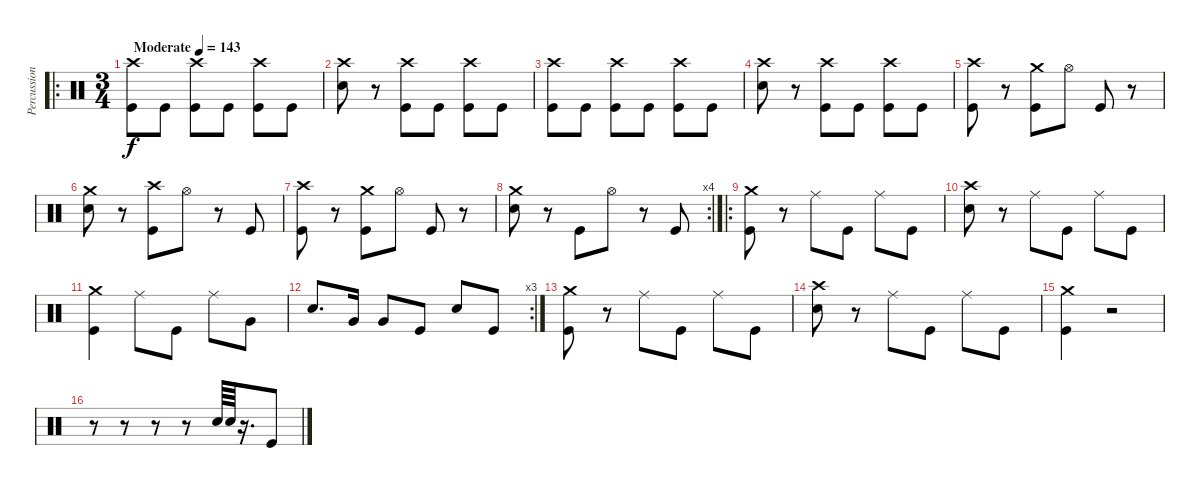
\track ("Percussion" "Percussion") {instrument percussion}
\staff {score}
\articulation defaults
\ro
\ts (3 4)
\tempo (143 "Moderate")
\clef neutral
\ks c
("Crash high (hit)" "Kick (hit)").8{dy f} "Kick (hit)".8 ("Crash high (hit)" "Kick (hit)").8 "Kick (hit)".8 ("Crash high (hit)" "Kick (hit)").8 "Kick (hit)".8 |
("Crash high (hit)" "Electric Snare (hit)").8 r.8 ("Crash high (hit)" "Kick (hit)").8 "Kick (hit)".8 ("Crash high (hit)" "Kick (hit)").8 "Kick (hit)".8 |
("Crash high (hit)" "Kick (hit)").8 "Kick (hit)".8 ("Crash high (hit)" "Kick (hit)").8 "Kick (hit)".8 ("Crash high (hit)" "Kick (hit)").8 "Kick (hit)".8 |
("Crash high (hit)" "Electric Snare (hit)").8 r.8 ("Crash high (hit)" "Kick (hit)").8 "Kick (hit)".8 ("Crash high (hit)" "Kick (hit)").8 "Kick (hit)".8 |
("Crash high (hit)" "Kick (hit)").8 r.8 ("Crash medium (hit)" "Kick (hit)").8 "Hi-Hat (open)".8 "Kick (hit)".8 r.8 |
("Crash medium (hit)" "Electric Snare (hit)").8 r.8 ("Crash high (hit)" "Kick (hit)").8 "Hi-Hat (open)".8 r.8 "Kick (hit)".8 |
("Crash high (hit)" "Kick (hit)").8 r.8 ("Crash medium (hit)" "Kick (hit)").8 "Hi-Hat (open)".8 "Kick (hit)".8 r.8 |
\rc 4
("Crash medium (hit)" "Electric Snare (hit)").8 r.8 "Kick (hit)".8 "Hi-Hat (open)".8 r.8 "Kick (hit)".8 |
\ro
("Crash medium (hit)" "Kick (hit)").8 r.8 "Ride (middle)".8 "Kick (hit)".8 "Ride (middle)".8 "Kick (hit)".8 |
("Crash high (hit)" "Electric Snare (hit)").8 r.8 "Ride (middle)".8 "Kick (hit)".8 "Ride (middle)".8 "Kick (hit)".8 |
("Crash medium (hit)" "Kick (hit)").4 "Ride (middle)".8 "Kick (hit)".8 "Ride (middle)".8 "Very Low Tom (hit)".8 |
\rc 3 "Electric Snare (hit)".8{d} "Very Low Tom (hit)".16 "Very Low Tom (hit)".8 "Kick (hit)".8 "Electric Snare (hit)".8 "Kick (hit)".8
|
("Crash medium (hit)" "Kick (hit)").8 r.8 "Ride (middle)".8 "Kick (hit)".8 "Ride (middle)".8 "Kick (hit)".8 |
("Crash high (hit)" "Electric Snare (hit)").8 r.8 "Ride (middle)".8 "Kick (hit)".8 "Ride (middle)".8 "Kick (hit)".8 |
("Crash medium (hit)" "Kick (hit)").4 r.2 |
r.8 r.8 r.8 r.8 "Electric Snare (hit)".64 "Electric Snare (hit)".64 r.16{d} "Kick (hit)".8
